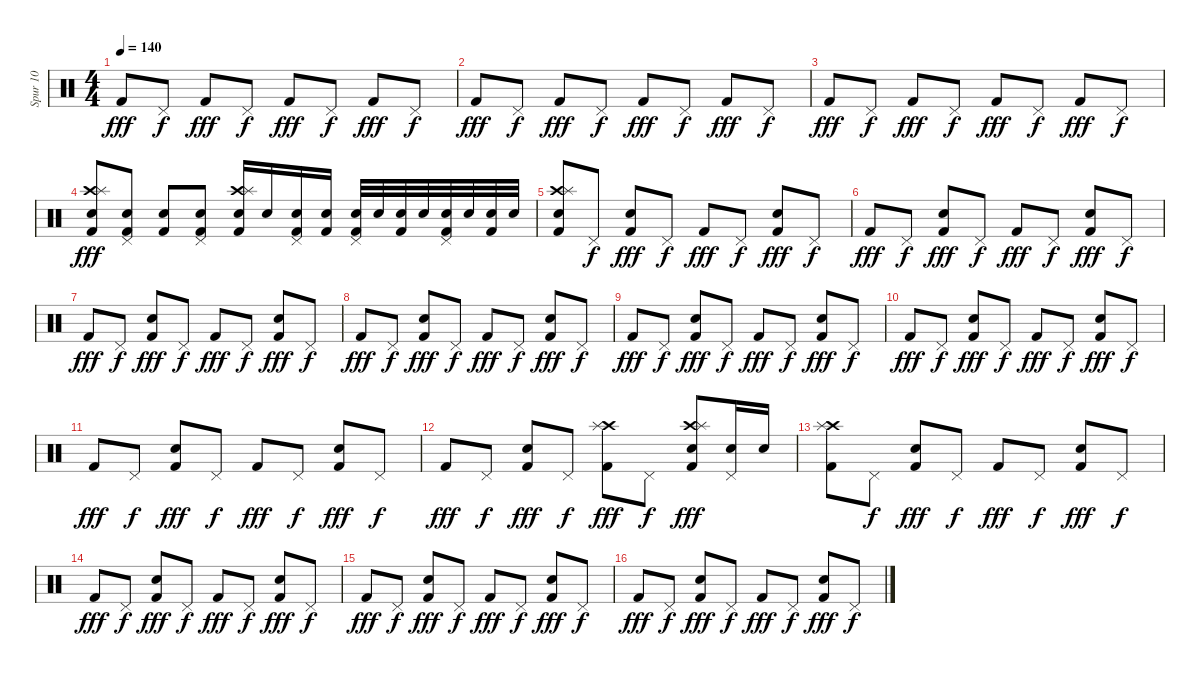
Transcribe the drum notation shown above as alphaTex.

\track ("Spur 10" "Spur 10") {instrument percussion}
\staff {score}
\articulation defaults
\ts (4 4)
\tempo 140
\clef neutral
\ks c "Kick (hit) 2".8{dy fff} "Pedal Hi-Hat (hit)".8{dy f} "Kick (hit) 2".8{dy fff} "Pedal Hi-Hat (hit)".8{dy f} "Kick (hit) 2".8{dy fff} "Pedal Hi-Hat (hit)".8{dy f} "Kick (hit) 2".8{dy fff} "Pedal Hi-Hat (hit)".8{dy f}
|
"Kick (hit) 2".8{dy fff} "Pedal Hi-Hat (hit)".8{dy f} "Kick (hit) 2".8{dy fff} "Pedal Hi-Hat (hit)".8{dy f} "Kick (hit) 2".8{dy fff} "Pedal Hi-Hat (hit)".8{dy f} "Kick (hit) 2".8{dy fff} "Pedal Hi-Hat (hit)".8{dy f} |
"Kick (hit) 2".8{dy fff} "Pedal Hi-Hat (hit)".8{dy f} "Kick (hit) 2".8{dy fff} "Pedal Hi-Hat (hit)".8{dy f} "Kick (hit) 2".8{dy fff} "Pedal Hi-Hat (hit)".8{dy f} "Kick (hit) 2".8{dy fff} "Pedal Hi-Hat (hit)".8{dy f} |
("Crash high (hit)" "Splash (hit)" "Snare (hit) 2" "Kick (hit) 2").8{dy fff} ("Pedal Hi-Hat (hit)" "Snare (hit) 2" "Kick (hit) 2").8 ("Snare (hit) 2" "Kick (hit) 2").8 ("Pedal Hi-Hat (hit)" "Snare (hit) 2" "Kick (hit) 2").8 ("Crash high (hit)" "Splash (hit)" "Snare (hit) 2" "Kick (hit) 2").16 "Snare (hit) 2".16 ("Pedal Hi-Hat (hit)" "Snare (hit) 2" "Kick (hit) 2").16 ("Snare (hit) 2" "Kick (hit) 2").16 ("Pedal Hi-Hat (hit)" "Snare (hit) 2" "Kick (hit) 2").32 "Snare (hit) 2".32 ("Snare (hit) 2" "Kick (hit) 2").32 "Snare (hit) 2".32 ("Pedal Hi-Hat (hit)" "Snare (hit) 2" "Kick (hit) 2").32 "Snare (hit) 2".32 ("Snare (hit) 2" "Kick (hit) 2").32 "Snare (hit) 2".32 |
("Crash high (hit)" "Splash (hit)" "Snare (hit) 2" "Kick (hit) 2").8 "Pedal Hi-Hat (hit)".8{dy f} ("Snare (hit) 2" "Kick (hit) 2").8{dy fff} "Pedal Hi-Hat (hit)".8{dy f} "Kick (hit) 2".8{dy fff} "Pedal Hi-Hat (hit)".8{dy f} ("Snare (hit) 2" "Kick (hit) 2").8{dy fff} "Pedal Hi-Hat (hit)".8{dy f} |
"Kick (hit) 2".8{dy fff} "Pedal Hi-Hat (hit)".8{dy f} ("Snare (hit) 2" "Kick (hit) 2").8{dy fff} "Pedal Hi-Hat (hit)".8{dy f} "Kick (hit) 2".8{dy fff} "Pedal Hi-Hat (hit)".8{dy f} ("Snare (hit) 2" "Kick (hit) 2").8{dy fff} "Pedal Hi-Hat (hit)".8{dy f} |
"Kick (hit) 2".8{dy fff} "Pedal Hi-Hat (hit)".8{dy f} ("Snare (hit) 2" "Kick (hit) 2").8{dy fff} "Pedal Hi-Hat (hit)".8{dy f} "Kick (hit) 2".8{dy fff} "Pedal Hi-Hat (hit)".8{dy f} ("Snare (hit) 2" "Kick (hit) 2").8{dy fff} "Pedal Hi-Hat (hit)".8{dy f} |
"Kick (hit) 2".8{dy fff} "Pedal Hi-Hat (hit)".8{dy f} ("Snare (hit) 2" "Kick (hit) 2").8{dy fff} "Pedal Hi-Hat (hit)".8{dy f} "Kick (hit) 2".8{dy fff} "Pedal Hi-Hat (hit)".8{dy f} ("Snare (hit) 2" "Kick (hit) 2").8{dy fff} "Pedal Hi-Hat (hit)".8{dy f} |
"Kick (hit) 2".8{dy fff} "Pedal Hi-Hat (hit)".8{dy f} ("Snare (hit) 2" "Kick (hit) 2").8{dy fff} "Pedal Hi-Hat (hit)".8{dy f} "Kick (hit) 2".8{dy fff} "Pedal Hi-Hat (hit)".8{dy f} ("Snare (hit) 2" "Kick (hit) 2").8{dy fff} "Pedal Hi-Hat (hit)".8{dy f} |
"Kick (hit) 2".8{dy fff} "Pedal Hi-Hat (hit)".8{dy f} ("Snare (hit) 2" "Kick (hit) 2").8{dy fff} "Pedal Hi-Hat (hit)".8{dy f} "Kick (hit) 2".8{dy fff} "Pedal Hi-Hat (hit)".8{dy f} ("Snare (hit) 2" "Kick (hit) 2").8{dy fff} "Pedal Hi-Hat (hit)".8{dy f} |
"Kick (hit) 2".8{dy fff} "Pedal Hi-Hat (hit)".8{dy f} ("Snare (hit) 2" "Kick (hit) 2").8{dy fff} "Pedal Hi-Hat (hit)".8{dy f} "Kick (hit) 2".8{dy fff} "Pedal Hi-Hat (hit)".8{dy f} ("Snare (hit) 2" "Kick (hit) 2").8{dy fff} "Pedal Hi-Hat (hit)".8{dy f} |
"Kick (hit) 2".8{dy fff} "Pedal Hi-Hat (hit)".8{dy f} ("Snare (hit) 2" "Kick (hit) 2").8{dy fff} "Pedal Hi-Hat (hit)".8{dy f} ("Crash high (hit)" "Splash (hit)" "Kick (hit) 2").8{dy fff} "Pedal Hi-Hat (hit)".8{dy f} ("Crash high (hit)" "Splash (hit)" "Snare (hit) 2" "Kick (hit) 2").8{dy fff} ("Pedal Hi-Hat (hit)" "Snare (hit) 2").16 "Snare (hit) 2".16 |
("Crash high (hit)" "Splash (hit)" "Kick (hit) 2").8 "Pedal Hi-Hat (hit)".8{dy f} ("Snare (hit) 2" "Kick (hit) 2").8{dy fff} "Pedal Hi-Hat (hit)".8{dy f} "Kick (hit) 2".8{dy fff} "Pedal Hi-Hat (hit)".8{dy f} ("Snare (hit) 2" "Kick (hit) 2").8{dy fff} "Pedal Hi-Hat (hit)".8{dy f} |
"Kick (hit) 2".8{dy fff} "Pedal Hi-Hat (hit)".8{dy f} ("Snare (hit) 2" "Kick (hit) 2").8{dy fff} "Pedal Hi-Hat (hit)".8{dy f} "Kick (hit) 2".8{dy fff} "Pedal Hi-Hat (hit)".8{dy f} ("Snare (hit) 2" "Kick (hit) 2").8{dy fff} "Pedal Hi-Hat (hit)".8{dy f} |
"Kick (hit) 2".8{dy fff} "Pedal Hi-Hat (hit)".8{dy f} ("Snare (hit) 2" "Kick (hit) 2").8{dy fff} "Pedal Hi-Hat (hit)".8{dy f} "Kick (hit) 2".8{dy fff} "Pedal Hi-Hat (hit)".8{dy f} ("Snare (hit) 2" "Kick (hit) 2").8{dy fff} "Pedal Hi-Hat (hit)".8{dy f} |
"Kick (hit) 2".8{dy fff} "Pedal Hi-Hat (hit)".8{dy f} ("Snare (hit) 2" "Kick (hit) 2").8{dy fff} "Pedal Hi-Hat (hit)".8{dy f} "Kick (hit) 2".8{dy fff} "Pedal Hi-Hat (hit)".8{dy f} ("Snare (hit) 2" "Kick (hit) 2").8{dy fff} "Pedal Hi-Hat (hit)".8{dy f}
